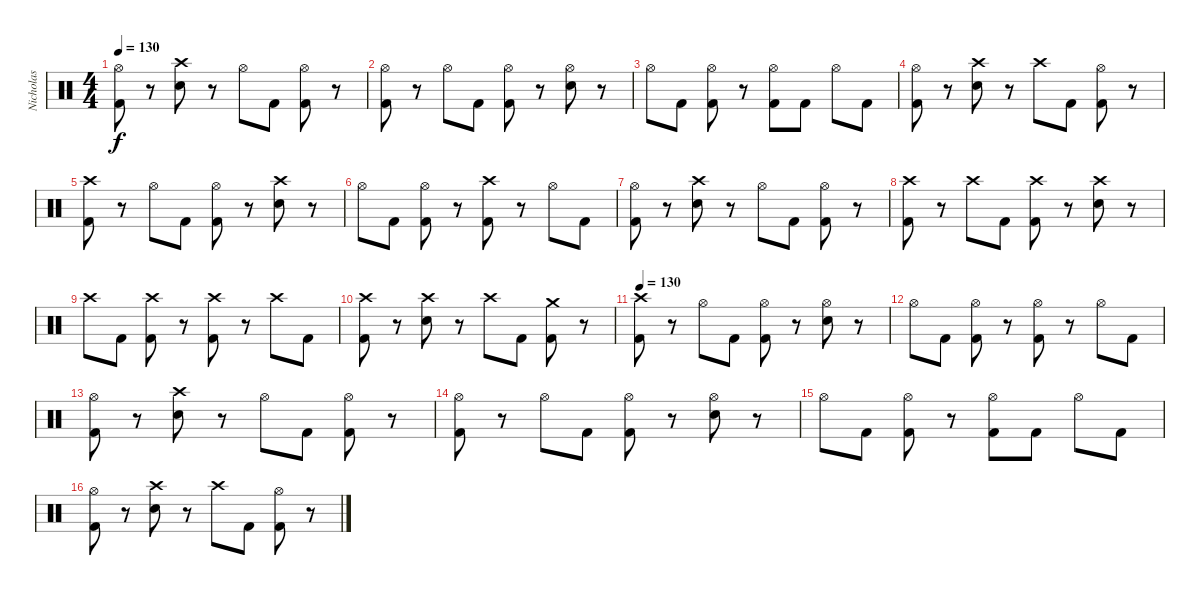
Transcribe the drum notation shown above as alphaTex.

\track ("Nicholas" "Nicholas") {instrument percussion}
\staff {score}
\articulation defaults
\ts (4 4)
\tempo 130
\clef neutral
\ks c
("Hi-Hat (open)" "Kick (hit) 2").8{dy f} r.8 ("Crash high (hit)" "Electric Snare (hit)").8 r.8 "Hi-Hat (open)".8 "Kick (hit) 2".8 ("Hi-Hat (open)" "Kick (hit) 2").8 r.8 |
("Hi-Hat (open)" "Kick (hit) 2").8 r.8 "Hi-Hat (open)".8 "Kick (hit) 2".8 ("Hi-Hat (open)" "Kick (hit) 2").8 r.8 ("Hi-Hat (open)" "Electric Snare (hit)").8 r.8 |
"Hi-Hat (open)".8 "Kick (hit) 2".8 ("Hi-Hat (open)" "Kick (hit) 2").8 r.8 ("Hi-Hat (open)" "Kick (hit) 2").8 "Kick (hit) 2".8 "Hi-Hat (open)".8 "Kick (hit) 2".8 |
("Hi-Hat (open)" "Kick (hit) 2").8 r.8 ("Crash high (hit)" "Electric Snare (hit)").8 r.8 "Crash high (hit)".8 "Kick (hit) 2".8 ("Hi-Hat (open)" "Kick (hit) 2").8 r.8 |
("Crash high (hit)" "Kick (hit) 2").8 r.8 "Hi-Hat (open)".8 "Kick (hit) 2".8 ("Hi-Hat (open)" "Kick (hit) 2").8 r.8 ("Crash high (hit)" "Electric Snare (hit)").8 r.8 |
"Hi-Hat (open)".8 "Kick (hit) 2".8 ("Hi-Hat (open)" "Kick (hit) 2").8 r.8 ("Crash high (hit)" "Kick (hit) 2").8 r.8 "Hi-Hat (open)".8 "Kick (hit) 2".8 |
("Hi-Hat (open)" "Kick (hit) 2").8 r.8 ("Crash high (hit)" "Electric Snare (hit)").8 r.8 "Hi-Hat (open)".8 "Kick (hit) 2".8 ("Hi-Hat (open)" "Kick (hit) 2").8 r.8 |
("Crash high (hit)" "Kick (hit) 2").8 r.8 "Crash high (hit)".8 "Kick (hit) 2".8 ("Crash high (hit)" "Kick (hit) 2").8 r.8 ("Crash high (hit)" "Electric Snare (hit)").8 r.8 |
"Crash high (hit)".8 "Kick (hit) 2".8 ("Crash high (hit)" "Kick (hit) 2").8 r.8 ("Crash high (hit)" "Kick (hit) 2").8 r.8 "Crash high (hit)".8 "Kick (hit) 2".8 |
("Crash high (hit)" "Kick (hit) 2").8 r.8 ("Crash high (hit)" "Electric Snare (hit)").8 r.8 "Crash high (hit)".8 "Kick (hit) 2".8 ("Crash medium (hit)" "Kick (hit) 2").8 r.8 |
\tempo 130
("Crash high (hit)" "Kick (hit) 2").8 r.8 "Hi-Hat (open)".8 "Kick (hit) 2".8 ("Hi-Hat (open)" "Kick (hit) 2").8 r.8 ("Hi-Hat (open)" "Electric Snare (hit)").8 r.8 |
"Hi-Hat (open)".8 "Kick (hit) 2".8 ("Hi-Hat (open)" "Kick (hit) 2").8 r.8 ("Hi-Hat (open)" "Kick (hit) 2").8 r.8 "Hi-Hat (open)".8 "Kick (hit) 2".8 |
("Hi-Hat (open)" "Kick (hit) 2").8 r.8 ("Crash high (hit)" "Electric Snare (hit)").8 r.8 "Hi-Hat (open)".8 "Kick (hit) 2".8 ("Hi-Hat (open)" "Kick (hit) 2").8 r.8 |
("Hi-Hat (open)" "Kick (hit) 2").8 r.8 "Hi-Hat (open)".8 "Kick (hit) 2".8 ("Hi-Hat (open)" "Kick (hit) 2").8 r.8 ("Hi-Hat (open)" "Electric Snare (hit)").8 r.8 |
"Hi-Hat (open)".8 "Kick (hit) 2".8 ("Hi-Hat (open)" "Kick (hit) 2").8 r.8 ("Hi-Hat (open)" "Kick (hit) 2").8 "Kick (hit) 2".8 "Hi-Hat (open)".8 "Kick (hit) 2".8 |
("Hi-Hat (open)" "Kick (hit) 2").8 r.8 ("Crash high (hit)" "Electric Snare (hit)").8 r.8 "Crash high (hit)".8 "Kick (hit) 2".8 ("Hi-Hat (open)" "Kick (hit) 2").8 r.8
